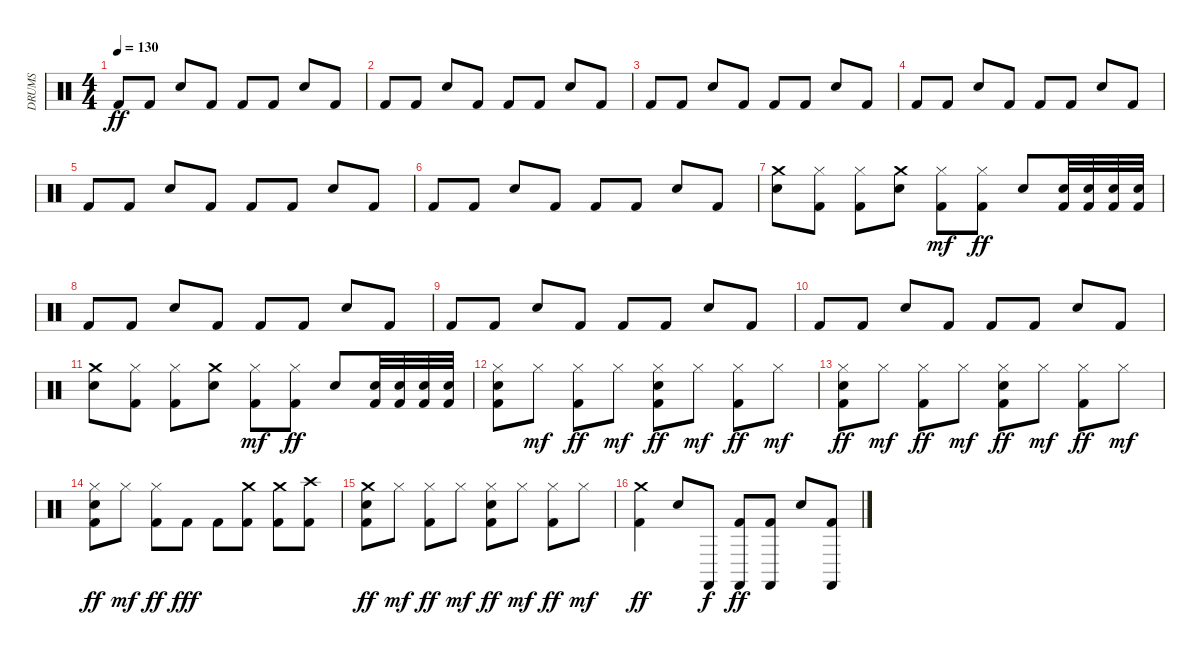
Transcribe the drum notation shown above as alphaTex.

\track ("DRUMS" "DRUMS") {instrument percussion}
\staff {score}
\articulation defaults
\ts (4 4)
\tempo 130
\clef neutral
\ks c "Kick (hit) 2".8{dy ff} "Kick (hit) 2".8 "Snare (hit) 2".8 "Kick (hit) 2".8 "Kick (hit) 2".8 "Kick (hit) 2".8 "Snare (hit) 2".8 "Kick (hit) 2".8
|
"Kick (hit) 2".8 "Kick (hit) 2".8 "Snare (hit) 2".8 "Kick (hit) 2".8 "Kick (hit) 2".8 "Kick (hit) 2".8 "Snare (hit) 2".8 "Kick (hit) 2".8 |
"Kick (hit) 2".8 "Kick (hit) 2".8 "Snare (hit) 2".8 "Kick (hit) 2".8 "Kick (hit) 2".8 "Kick (hit) 2".8 "Snare (hit) 2".8 "Kick (hit) 2".8 |
"Kick (hit) 2".8 "Kick (hit) 2".8 "Snare (hit) 2".8 "Kick (hit) 2".8 "Kick (hit) 2".8 "Kick (hit) 2".8 "Snare (hit) 2".8 "Kick (hit) 2".8 |
"Kick (hit) 2".8 "Kick (hit) 2".8 "Snare (hit) 2".8 "Kick (hit) 2".8 "Kick (hit) 2".8 "Kick (hit) 2".8 "Snare (hit) 2".8 "Kick (hit) 2".8 |
"Kick (hit) 2".8 "Kick (hit) 2".8 "Snare (hit) 2".8 "Kick (hit) 2".8 "Kick (hit) 2".8 "Kick (hit) 2".8 "Snare (hit) 2".8 "Kick (hit) 2".8 |
("Crash medium (hit)" "Snare (hit) 2").8 ("Hi-Hat (closed)" "Kick (hit) 2").8 ("Hi-Hat (closed)" "Kick (hit) 2").8 ("Crash medium (hit)" "Snare (hit) 2").8 ("Hi-Hat (closed)" "Kick (hit) 2").8{dy mf} ("Hi-Hat (closed)" "Kick (hit) 2").8{dy ff} "Snare (hit) 2".8 ("Snare (hit) 2" "Kick (hit) 2").32 ("Snare (hit) 2" "Kick (hit) 2").32 ("Snare (hit) 2" "Kick (hit) 2").32 ("Snare (hit) 2" "Kick (hit) 2").32 |
"Kick (hit) 2".8 "Kick (hit) 2".8 "Snare (hit) 2".8 "Kick (hit) 2".8 "Kick (hit) 2".8 "Kick (hit) 2".8 "Snare (hit) 2".8 "Kick (hit) 2".8 |
"Kick (hit) 2".8 "Kick (hit) 2".8 "Snare (hit) 2".8 "Kick (hit) 2".8 "Kick (hit) 2".8 "Kick (hit) 2".8 "Snare (hit) 2".8 "Kick (hit) 2".8 |
"Kick (hit) 2".8 "Kick (hit) 2".8 "Snare (hit) 2".8 "Kick (hit) 2".8 "Kick (hit) 2".8 "Kick (hit) 2".8 "Snare (hit) 2".8 "Kick (hit) 2".8 |
("Crash medium (hit)" "Snare (hit) 2").8 ("Hi-Hat (closed)" "Kick (hit) 2").8 ("Hi-Hat (closed)" "Kick (hit) 2").8 ("Crash medium (hit)" "Snare (hit) 2").8 ("Hi-Hat (closed)" "Kick (hit) 2").8{dy mf} ("Hi-Hat (closed)" "Kick (hit) 2").8{dy ff} "Snare (hit) 2".8 ("Snare (hit) 2" "Kick (hit) 2").32 ("Snare (hit) 2" "Kick (hit) 2").32 ("Snare (hit) 2" "Kick (hit) 2").32 ("Snare (hit) 2" "Kick (hit) 2").32 |
("Hi-Hat (closed)" "Snare (hit) 2" "Kick (hit) 2").8 "Hi-Hat (closed)".8{dy mf} ("Hi-Hat (closed)" "Kick (hit) 2").8{dy ff} "Hi-Hat (closed)".8{dy mf} ("Hi-Hat (closed)" "Snare (hit) 2" "Kick (hit) 2").8{dy ff} "Hi-Hat (closed)".8{dy mf} ("Hi-Hat (closed)" "Kick (hit) 2").8{dy ff} "Hi-Hat (closed)".8{dy mf} |
("Hi-Hat (closed)" "Snare (hit) 2" "Kick (hit) 2").8{dy ff} "Hi-Hat (closed)".8{dy mf} ("Hi-Hat (closed)" "Kick (hit) 2").8{dy ff} "Hi-Hat (closed)".8{dy mf} ("Hi-Hat (closed)" "Snare (hit) 2" "Kick (hit) 2").8{dy ff} "Hi-Hat (closed)".8{dy mf} ("Hi-Hat (closed)" "Kick (hit) 2").8{dy ff} "Hi-Hat (closed)".8{dy mf} |
("Hi-Hat (closed)" "Snare (hit) 2" "Kick (hit) 2").8{dy ff} "Hi-Hat (closed)".8{dy mf} ("Hi-Hat (closed)" "Kick (hit) 2").8{dy ff} "Kick (hit) 2".8{dy fff} "Kick (hit) 2".8 ("Crash medium (hit)" "Kick (hit) 2").8 ("Crash medium (hit)" "Kick (hit) 2").8 ("Crash high (hit)" "Kick (hit) 2").8 |
("Crash medium (hit)" "Snare (hit) 2" "Kick (hit) 2").8{dy ff} "Hi-Hat (closed)".8{dy mf} ("Hi-Hat (closed)" "Kick (hit) 2").8{dy ff} "Hi-Hat (closed)".8{dy mf} ("Hi-Hat (closed)" "Snare (hit) 2" "Kick (hit) 2").8{dy ff} "Hi-Hat (closed)".8{dy mf} ("Hi-Hat (closed)" "Kick (hit) 2").8{dy ff} "Hi-Hat (closed)".8{dy mf} |
("Crash medium (hit)" "Kick (hit) 2").4{dy ff} "Snare (hit) 2".8 "Castanets (hit)".8{dy f} ("Castanets (hit)" "Kick (hit) 2").8{dy ff} ("Castanets (hit)" "Kick (hit) 2").8 "Snare (hit) 2".8 ("Castanets (hit)" "Kick (hit) 2").8
